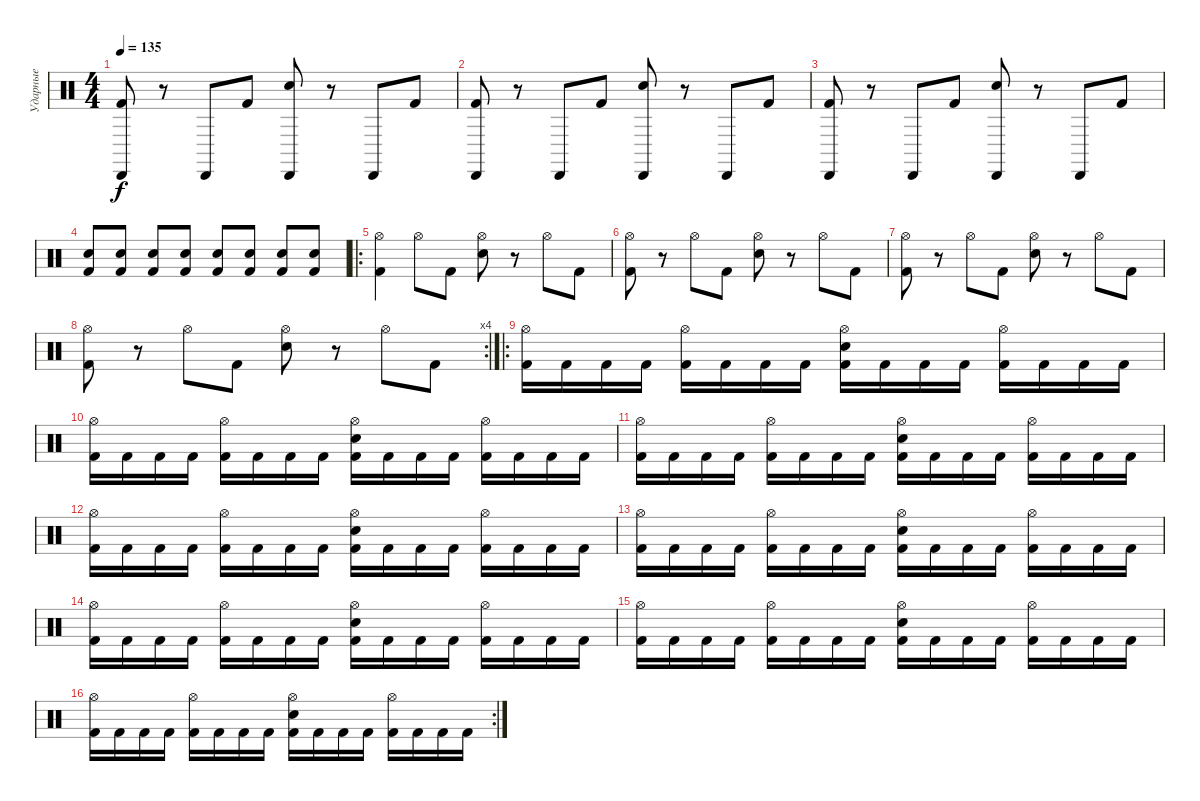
\track ("Ударные" "Ударные") {instrument percussion}
\staff {score}
\articulation defaults
\ts (4 4)
\tempo 135
\clef neutral
\ks c
("Cabasa (hit)" "Kick (hit) 2").8{dy f} r.8 "Cabasa (hit)".8 "Kick (hit) 2".8 ("Electric Snare (hit)" "Cabasa (hit)").8 r.8 "Cabasa (hit)".8 "Kick (hit) 2".8 |
("Cabasa (hit)" "Kick (hit) 2").8 r.8 "Cabasa (hit)".8 "Kick (hit) 2".8 ("Electric Snare (hit)" "Cabasa (hit)").8 r.8 "Cabasa (hit)".8 "Kick (hit) 2".8 |
("Cabasa (hit)" "Kick (hit) 2").8 r.8 "Cabasa (hit)".8 "Kick (hit) 2".8 ("Electric Snare (hit)" "Cabasa (hit)").8 r.8 "Cabasa (hit)".8 "Kick (hit) 2".8 |
("Electric Snare (hit)" "Kick (hit) 2").8 ("Electric Snare (hit)" "Kick (hit) 2").8 ("Electric Snare (hit)" "Kick (hit) 2").8 ("Electric Snare (hit)" "Kick (hit) 2").8 ("Electric Snare (hit)" "Kick (hit) 2").8 ("Electric Snare (hit)" "Kick (hit) 2").8 ("Electric Snare (hit)" "Kick (hit) 2").8 ("Electric Snare (hit)" "Kick (hit) 2").8 |
\ro
("Hi-Hat (open)" "Kick (hit) 2").4 "Hi-Hat (open)".8 "Kick (hit) 2".8 ("Electric Snare (hit)" "Hi-Hat (open)").8 r.8 "Hi-Hat (open)".8 "Kick (hit) 2".8 |
("Kick (hit) 2" "Hi-Hat (open)").8 r.8 "Hi-Hat (open)".8 "Kick (hit) 2".8 ("Electric Snare (hit)" "Hi-Hat (open)").8 r.8 "Hi-Hat (open)".8 "Kick (hit) 2".8 |
("Kick (hit) 2" "Hi-Hat (open)").8 r.8 "Hi-Hat (open)".8 "Kick (hit) 2".8 ("Electric Snare (hit)" "Hi-Hat (open)").8 r.8 "Hi-Hat (open)".8 "Kick (hit) 2".8 |
\rc 4
("Kick (hit) 2" "Hi-Hat (open)").8 r.8 "Hi-Hat (open)".8 "Kick (hit) 2".8 ("Electric Snare (hit)" "Hi-Hat (open)").8 r.8 "Hi-Hat (open)".8 "Kick (hit) 2".8 |
\ro
("Kick (hit) 2" "Hi-Hat (open)").16 "Kick (hit) 2".16 "Kick (hit) 2".16 "Kick (hit) 2".16 ("Kick (hit) 2" "Hi-Hat (open)").16 "Kick (hit) 2".16 "Kick (hit) 2".16 "Kick (hit) 2".16 ("Kick (hit) 2" "Electric Snare (hit)" "Hi-Hat (open)").16 "Kick (hit) 2".16 "Kick (hit) 2".16 "Kick (hit) 2".16 ("Kick (hit) 2" "Hi-Hat (open)").16 "Kick (hit) 2".16 "Kick (hit) 2".16 "Kick (hit) 2".16 |
("Kick (hit) 2" "Hi-Hat (open)").16 "Kick (hit) 2".16 "Kick (hit) 2".16 "Kick (hit) 2".16 ("Kick (hit) 2" "Hi-Hat (open)").16 "Kick (hit) 2".16 "Kick (hit) 2".16 "Kick (hit) 2".16 ("Kick (hit) 2" "Electric Snare (hit)" "Hi-Hat (open)").16 "Kick (hit) 2".16 "Kick (hit) 2".16 "Kick (hit) 2".16 ("Kick (hit) 2" "Hi-Hat (open)").16 "Kick (hit) 2".16 "Kick (hit) 2".16 "Kick (hit) 2".16 |
("Kick (hit) 2" "Hi-Hat (open)").16 "Kick (hit) 2".16 "Kick (hit) 2".16 "Kick (hit) 2".16 ("Kick (hit) 2" "Hi-Hat (open)").16 "Kick (hit) 2".16 "Kick (hit) 2".16 "Kick (hit) 2".16 ("Kick (hit) 2" "Electric Snare (hit)" "Hi-Hat (open)").16 "Kick (hit) 2".16 "Kick (hit) 2".16 "Kick (hit) 2".16 ("Kick (hit) 2" "Hi-Hat (open)").16 "Kick (hit) 2".16 "Kick (hit) 2".16 "Kick (hit) 2".16 |
("Kick (hit) 2" "Hi-Hat (open)").16 "Kick (hit) 2".16 "Kick (hit) 2".16 "Kick (hit) 2".16 ("Kick (hit) 2" "Hi-Hat (open)").16 "Kick (hit) 2".16 "Kick (hit) 2".16 "Kick (hit) 2".16 ("Kick (hit) 2" "Electric Snare (hit)" "Hi-Hat (open)").16 "Kick (hit) 2".16 "Kick (hit) 2".16 "Kick (hit) 2".16 ("Kick (hit) 2" "Hi-Hat (open)").16 "Kick (hit) 2".16 "Kick (hit) 2".16 "Kick (hit) 2".16 |
("Kick (hit) 2" "Hi-Hat (open)").16 "Kick (hit) 2".16 "Kick (hit) 2".16 "Kick (hit) 2".16 ("Kick (hit) 2" "Hi-Hat (open)").16 "Kick (hit) 2".16 "Kick (hit) 2".16 "Kick (hit) 2".16 ("Kick (hit) 2" "Electric Snare (hit)" "Hi-Hat (open)").16 "Kick (hit) 2".16 "Kick (hit) 2".16 "Kick (hit) 2".16 ("Kick (hit) 2" "Hi-Hat (open)").16 "Kick (hit) 2".16 "Kick (hit) 2".16 "Kick (hit) 2".16 |
("Kick (hit) 2" "Hi-Hat (open)").16 "Kick (hit) 2".16 "Kick (hit) 2".16 "Kick (hit) 2".16 ("Kick (hit) 2" "Hi-Hat (open)").16 "Kick (hit) 2".16 "Kick (hit) 2".16 "Kick (hit) 2".16 ("Kick (hit) 2" "Electric Snare (hit)" "Hi-Hat (open)").16 "Kick (hit) 2".16 "Kick (hit) 2".16 "Kick (hit) 2".16 ("Kick (hit) 2" "Hi-Hat (open)").16 "Kick (hit) 2".16 "Kick (hit) 2".16 "Kick (hit) 2".16 |
("Kick (hit) 2" "Hi-Hat (open)").16 "Kick (hit) 2".16 "Kick (hit) 2".16 "Kick (hit) 2".16 ("Kick (hit) 2" "Hi-Hat (open)").16 "Kick (hit) 2".16 "Kick (hit) 2".16 "Kick (hit) 2".16 ("Kick (hit) 2" "Electric Snare (hit)" "Hi-Hat (open)").16 "Kick (hit) 2".16 "Kick (hit) 2".16 "Kick (hit) 2".16 ("Kick (hit) 2" "Hi-Hat (open)").16 "Kick (hit) 2".16 "Kick (hit) 2".16 "Kick (hit) 2".16 |
\rc 2
("Kick (hit) 2" "Hi-Hat (open)").16 "Kick (hit) 2".16 "Kick (hit) 2".16 "Kick (hit) 2".16 ("Kick (hit) 2" "Hi-Hat (open)").16 "Kick (hit) 2".16 "Kick (hit) 2".16 "Kick (hit) 2".16 ("Kick (hit) 2" "Electric Snare (hit)" "Hi-Hat (open)").16 "Kick (hit) 2".16 "Kick (hit) 2".16 "Kick (hit) 2".16 ("Kick (hit) 2" "Hi-Hat (open)").16 "Kick (hit) 2".16 "Kick (hit) 2".16 "Kick (hit) 2".16
